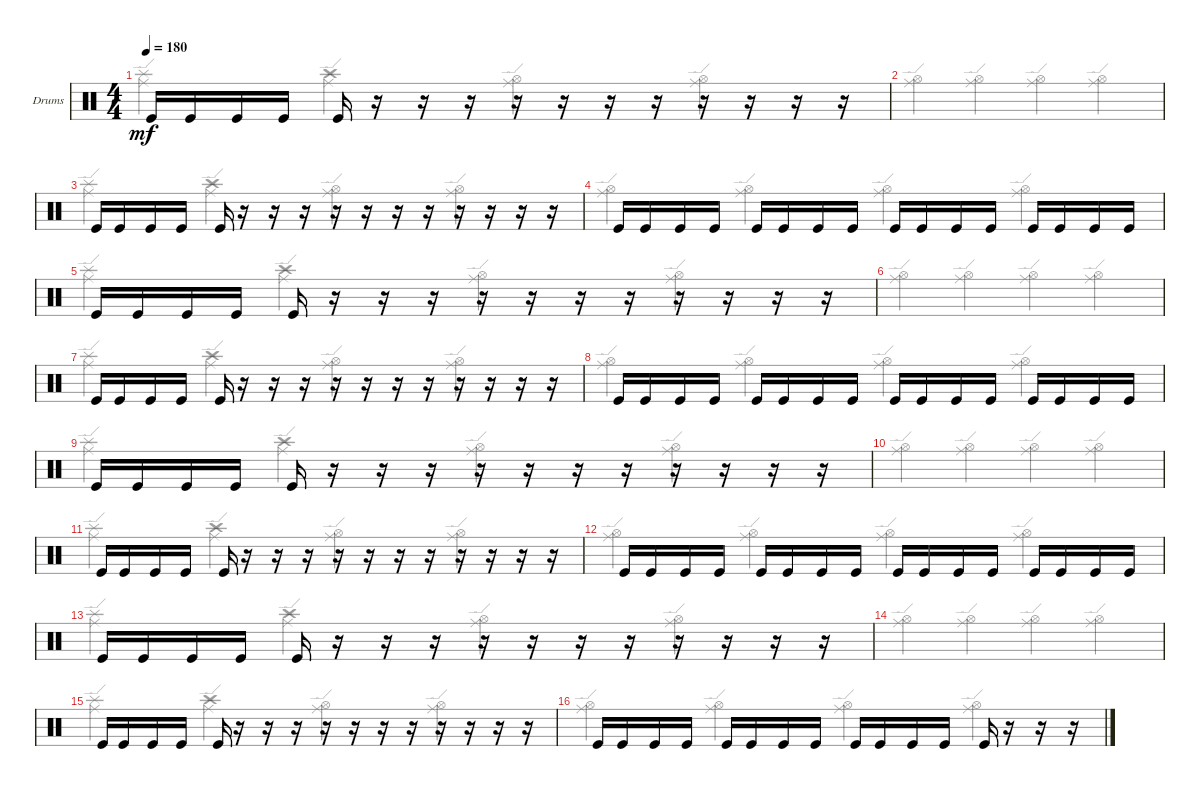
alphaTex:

\defaultSystemsLayout 4
\bracketExtendMode groupsimilarinstruments
\firstSystemTrackNameOrientation horizontal
\otherSystemsTrackNameOrientation horizontal
\track ("Drumkit" "Drums") {instrument percussion}
\staff {score}
\articulation defaults
\voice
\ts (4 4)
\tempo 180
\clef neutral
\ks c "Kick (hit)".16{dy mf} "Kick (hit)".16 "Kick (hit)".16 "Kick (hit)".16 "Kick (hit)".16
r.16 r.16 r.16 r.16 r.16 r.16 r.16 r.16 r.16 r.16 r.16 |
|
"Kick (hit)".16 "Kick (hit)".16 "Kick (hit)".16 "Kick (hit)".16 "Kick (hit)".16 r.16 r.16 r.16 r.16 r.16 r.16 r.16 r.16 r.16 r.16 r.16 |
"Kick (hit)".16 "Kick (hit)".16 "Kick (hit)".16 "Kick (hit)".16 "Kick (hit)".16 "Kick (hit)".16 "Kick (hit)".16 "Kick (hit)".16 "Kick (hit)".16 "Kick (hit)".16 "Kick (hit)".16 "Kick (hit)".16 "Kick (hit)".16 "Kick (hit)".16 "Kick (hit)".16 "Kick (hit)".16 |
"Kick (hit)".16 "Kick (hit)".16 "Kick (hit)".16 "Kick (hit)".16 "Kick (hit)".16 r.16 r.16 r.16 r.16 r.16 r.16 r.16 r.16 r.16 r.16 r.16 |
|
"Kick (hit)".16 "Kick (hit)".16 "Kick (hit)".16 "Kick (hit)".16 "Kick (hit)".16 r.16 r.16 r.16 r.16 r.16 r.16 r.16 r.16 r.16 r.16 r.16 |
"Kick (hit)".16 "Kick (hit)".16 "Kick (hit)".16 "Kick (hit)".16 "Kick (hit)".16 "Kick (hit)".16 "Kick (hit)".16 "Kick (hit)".16 "Kick (hit)".16 "Kick (hit)".16 "Kick (hit)".16 "Kick (hit)".16 "Kick (hit)".16 "Kick (hit)".16 "Kick (hit)".16 "Kick (hit)".16 |
"Kick (hit)".16 "Kick (hit)".16 "Kick (hit)".16 "Kick (hit)".16 "Kick (hit)".16 r.16 r.16 r.16 r.16 r.16 r.16 r.16 r.16 r.16 r.16 r.16 |
|
"Kick (hit)".16 "Kick (hit)".16 "Kick (hit)".16 "Kick (hit)".16 "Kick (hit)".16 r.16 r.16 r.16 r.16 r.16 r.16 r.16 r.16 r.16 r.16 r.16 |
"Kick (hit)".16 "Kick (hit)".16 "Kick (hit)".16 "Kick (hit)".16 "Kick (hit)".16 "Kick (hit)".16 "Kick (hit)".16 "Kick (hit)".16 "Kick (hit)".16 "Kick (hit)".16 "Kick (hit)".16 "Kick (hit)".16 "Kick (hit)".16 "Kick (hit)".16 "Kick (hit)".16 "Kick (hit)".16 |
"Kick (hit)".16 "Kick (hit)".16 "Kick (hit)".16 "Kick (hit)".16 "Kick (hit)".16 r.16 r.16 r.16 r.16 r.16 r.16 r.16 r.16 r.16 r.16 r.16 |
|
"Kick (hit)".16 "Kick (hit)".16 "Kick (hit)".16 "Kick (hit)".16 "Kick (hit)".16 r.16 r.16 r.16 r.16 r.16 r.16 r.16 r.16 r.16 r.16 r.16 |
"Kick (hit)".16 "Kick (hit)".16 "Kick (hit)".16 "Kick (hit)".16 "Kick (hit)".16 "Kick (hit)".16 "Kick (hit)".16 "Kick (hit)".16 "Kick (hit)".16 "Kick (hit)".16 "Kick (hit)".16 "Kick (hit)".16 "Kick (hit)".16 r.16 r.16 r.16
\voice
\clef neutral
\ottava regular
\simile none
\ks c
("Ride (edge)" "Splash (hit)").4{dy mf} ("Ride (edge)" "Crash high (hit)").4 ("Hi-Hat (open)" "Ride (edge)").4 ("Hi-Hat (open)" "Ride (edge)").4 |
("Hi-Hat (open)" "Ride (edge)").4 ("Hi-Hat (open)" "Ride (edge)").4 ("Hi-Hat (open)" "Ride (edge)").4 ("Hi-Hat (open)" "Ride (edge)").4 |
("Ride (edge)" "Splash (hit)").4 ("Ride (edge)" "Crash high (hit)").4 ("Hi-Hat (open)" "Ride (edge)").4 ("Hi-Hat (open)" "Ride (edge)").4 |
("Hi-Hat (open)" "Ride (edge)").4 ("Hi-Hat (open)" "Ride (edge)").4 ("Hi-Hat (open)" "Ride (edge)").4 ("Hi-Hat (open)" "Ride (edge)").4 |
("Ride (edge)" "Splash (hit)").4 ("Ride (edge)" "Crash high (hit)").4 ("Hi-Hat (open)" "Ride (edge)").4 ("Hi-Hat (open)" "Ride (edge)").4 |
("Hi-Hat (open)" "Ride (edge)").4 ("Hi-Hat (open)" "Ride (edge)").4 ("Hi-Hat (open)" "Ride (edge)").4 ("Hi-Hat (open)" "Ride (edge)").4 |
("Ride (edge)" "Splash (hit)").4 ("Ride (edge)" "Crash high (hit)").4 ("Hi-Hat (open)" "Ride (edge)").4 ("Hi-Hat (open)" "Ride (edge)").4 |
("Hi-Hat (open)" "Ride (edge)").4 ("Hi-Hat (open)" "Ride (edge)").4 ("Hi-Hat (open)" "Ride (edge)").4 ("Hi-Hat (open)" "Ride (edge)").4 |
("Ride (edge)" "Splash (hit)").4 ("Ride (edge)" "Crash high (hit)").4 ("Hi-Hat (open)" "Ride (edge)").4 ("Hi-Hat (open)" "Ride (edge)").4 |
("Hi-Hat (open)" "Ride (edge)").4 ("Hi-Hat (open)" "Ride (edge)").4 ("Hi-Hat (open)" "Ride (edge)").4 ("Hi-Hat (open)" "Ride (edge)").4 |
("Ride (edge)" "Splash (hit)").4 ("Ride (edge)" "Crash high (hit)").4 ("Hi-Hat (open)" "Ride (edge)").4 ("Hi-Hat (open)" "Ride (edge)").4 |
("Hi-Hat (open)" "Ride (edge)").4 ("Hi-Hat (open)" "Ride (edge)").4 ("Hi-Hat (open)" "Ride (edge)").4 ("Hi-Hat (open)" "Ride (edge)").4 |
("Ride (edge)" "Splash (hit)").4 ("Ride (edge)" "Crash high (hit)").4 ("Hi-Hat (open)" "Ride (edge)").4 ("Hi-Hat (open)" "Ride (edge)").4 |
("Hi-Hat (open)" "Ride (edge)").4 ("Hi-Hat (open)" "Ride (edge)").4 ("Hi-Hat (open)" "Ride (edge)").4 ("Hi-Hat (open)" "Ride (edge)").4 |
("Ride (edge)" "Splash (hit)").4 ("Ride (edge)" "Crash high (hit)").4 ("Hi-Hat (open)" "Ride (edge)").4 ("Hi-Hat (open)" "Ride (edge)").4 |
("Hi-Hat (open)" "Ride (edge)").4 ("Hi-Hat (open)" "Ride (edge)").4 ("Hi-Hat (open)" "Ride (edge)").4 ("Hi-Hat (open)" "Ride (edge)").4
